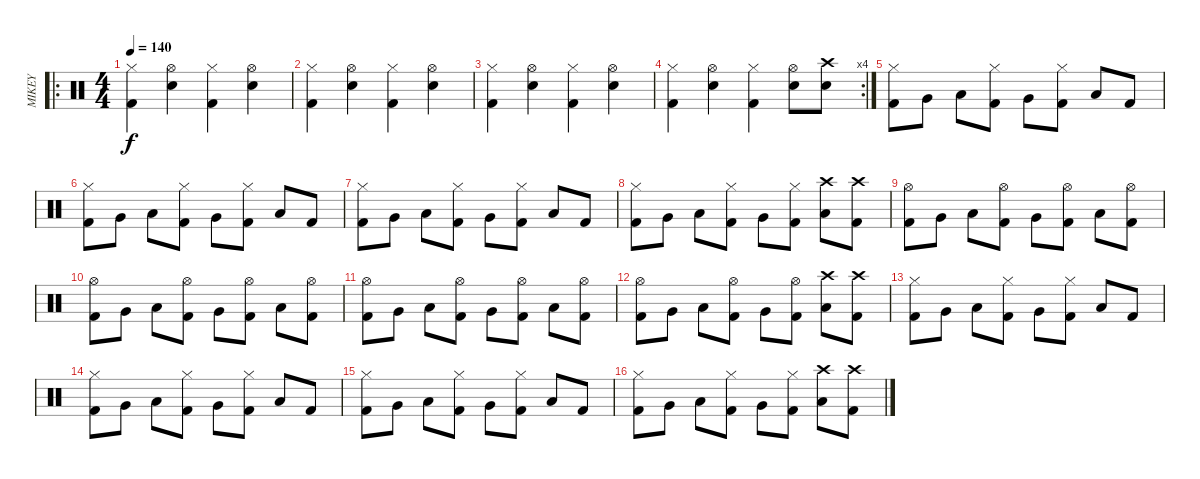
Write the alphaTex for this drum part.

\track ("MIKEY" "MIKEY") {instrument percussion}
\staff {score}
\articulation defaults
\ro
\ts (4 4)
\tempo 140
\clef neutral
\ks c
("Hi-Hat (closed)" "Kick (hit) 2").4{dy f} ("Hi-Hat (open)" "Electric Snare (hit)").4 ("Hi-Hat (closed)" "Kick (hit) 2").4 ("Hi-Hat (open)" "Electric Snare (hit)").4 |
("Hi-Hat (closed)" "Kick (hit) 2").4 ("Hi-Hat (open)" "Electric Snare (hit)").4 ("Hi-Hat (closed)" "Kick (hit) 2").4 ("Hi-Hat (open)" "Electric Snare (hit)").4 |
("Hi-Hat (closed)" "Kick (hit) 2").4 ("Hi-Hat (open)" "Electric Snare (hit)").4 ("Hi-Hat (closed)" "Kick (hit) 2").4 ("Hi-Hat (open)" "Electric Snare (hit)").4 |
\rc 4
("Hi-Hat (closed)" "Kick (hit) 2").4 ("Hi-Hat (open)" "Electric Snare (hit)").4 ("Hi-Hat (closed)" "Kick (hit) 2").4 ("Hi-Hat (open)" "Electric Snare (hit)").8 ("Crash high (hit)" "Electric Snare (hit)").8 |
("Hi-Hat (closed)" "Kick (hit) 2").8 "Very Low Tom (hit)".8 "Low Tom (hit)".8 ("Hi-Hat (closed)" "Kick (hit) 2").8 "Very Low Tom (hit)".8 ("Hi-Hat (closed)" "Kick (hit) 2").8 "Low Tom (hit)".8 "Kick (hit) 2".8 |
("Hi-Hat (closed)" "Kick (hit) 2").8 "Very Low Tom (hit)".8 "Low Tom (hit)".8 ("Hi-Hat (closed)" "Kick (hit) 2").8 "Very Low Tom (hit)".8 ("Hi-Hat (closed)" "Kick (hit) 2").8 "Low Tom (hit)".8 "Kick (hit) 2".8 |
("Hi-Hat (closed)" "Kick (hit) 2").8 "Very Low Tom (hit)".8 "Low Tom (hit)".8 ("Hi-Hat (closed)" "Kick (hit) 2").8 "Very Low Tom (hit)".8 ("Hi-Hat (closed)" "Kick (hit) 2").8 "Low Tom (hit)".8 "Kick (hit) 2".8 |
("Hi-Hat (closed)" "Kick (hit) 2").8 "Very Low Tom (hit)".8 "Low Tom (hit)".8 ("Hi-Hat (closed)" "Kick (hit) 2").8 "Very Low Tom (hit)".8 ("Hi-Hat (closed)" "Kick (hit) 2").8 ("Crash high (hit)" "Low Tom (hit)").8 ("Crash high (hit)" "Kick (hit) 2").8 |
("Hi-Hat (open)" "Kick (hit) 2").8 "Very Low Tom (hit)".8 "Low Tom (hit)".8 ("Hi-Hat (open)" "Kick (hit) 2").8 "Very Low Tom (hit)".8 ("Hi-Hat (open)" "Kick (hit) 2").8 "Low Tom (hit)".8 ("Hi-Hat (open)" "Kick (hit) 2").8 |
("Hi-Hat (open)" "Kick (hit) 2").8 "Very Low Tom (hit)".8 "Low Tom (hit)".8 ("Hi-Hat (open)" "Kick (hit) 2").8 "Very Low Tom (hit)".8 ("Hi-Hat (open)" "Kick (hit) 2").8 "Low Tom (hit)".8 ("Hi-Hat (open)" "Kick (hit) 2").8 |
("Hi-Hat (open)" "Kick (hit) 2").8 "Very Low Tom (hit)".8 "Low Tom (hit)".8 ("Hi-Hat (open)" "Kick (hit) 2").8 "Very Low Tom (hit)".8 ("Hi-Hat (open)" "Kick (hit) 2").8 "Low Tom (hit)".8 ("Hi-Hat (open)" "Kick (hit) 2").8 |
("Hi-Hat (open)" "Kick (hit) 2").8 "Very Low Tom (hit)".8 "Low Tom (hit)".8 ("Hi-Hat (open)" "Kick (hit) 2").8 "Very Low Tom (hit)".8 ("Hi-Hat (open)" "Kick (hit) 2").8 ("Crash high (hit)" "Low Tom (hit)").8 ("Crash high (hit)" "Kick (hit) 2").8 |
("Hi-Hat (closed)" "Kick (hit) 2").8 "Very Low Tom (hit)".8 "Low Tom (hit)".8 ("Hi-Hat (closed)" "Kick (hit) 2").8 "Very Low Tom (hit)".8 ("Hi-Hat (closed)" "Kick (hit) 2").8 "Low Tom (hit)".8 "Kick (hit) 2".8 |
("Hi-Hat (closed)" "Kick (hit) 2").8 "Very Low Tom (hit)".8 "Low Tom (hit)".8 ("Hi-Hat (closed)" "Kick (hit) 2").8 "Very Low Tom (hit)".8 ("Hi-Hat (closed)" "Kick (hit) 2").8 "Low Tom (hit)".8 "Kick (hit) 2".8 |
("Hi-Hat (closed)" "Kick (hit) 2").8 "Very Low Tom (hit)".8 "Low Tom (hit)".8 ("Hi-Hat (closed)" "Kick (hit) 2").8 "Very Low Tom (hit)".8 ("Hi-Hat (closed)" "Kick (hit) 2").8 "Low Tom (hit)".8 "Kick (hit) 2".8 |
("Hi-Hat (closed)" "Kick (hit) 2").8 "Very Low Tom (hit)".8 "Low Tom (hit)".8 ("Hi-Hat (closed)" "Kick (hit) 2").8 "Very Low Tom (hit)".8 ("Hi-Hat (closed)" "Kick (hit) 2").8 ("Crash high (hit)" "Low Tom (hit)").8 ("Crash high (hit)" "Kick (hit) 2").8
